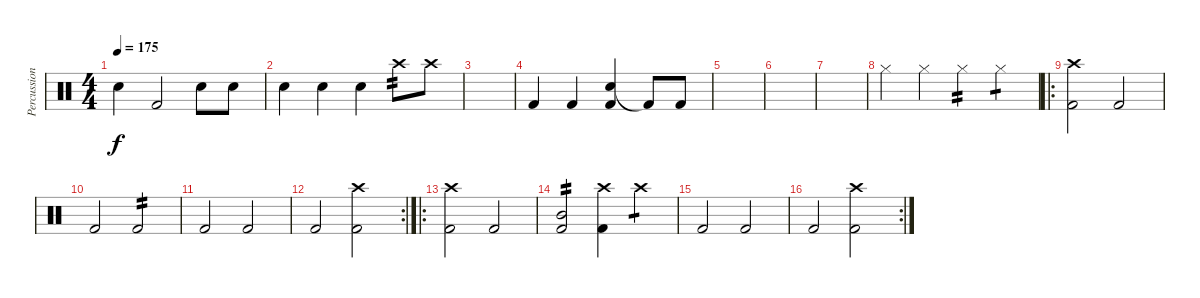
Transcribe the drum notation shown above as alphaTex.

\track ("Percussion" "Percussion") {instrument percussion}
\staff {score}
\articulation defaults
\ts (4 4)
\tempo 175
\clef neutral
\ks c "Snare (hit) 2".4{dy f} "Kick (hit) 2".2 "Snare (hit) 2".8 "Snare (hit) 2".8
|
"Snare (hit) 2".4 "Snare (hit) 2".4 "Snare (hit) 2".4 "Crash high (hit)".8{tp 2} "Crash high (hit)".8 |
|
"Kick (hit) 2".4 "Kick (hit) 2".4 ("Electric Snare (hit)" "Kick (hit) 2").4 "Kick (hit) 2"{t}.8 "Kick (hit) 2".8 |
|
|
|
"Hi-Hat (closed)".4 "Hi-Hat (closed)".4 "Hi-Hat (closed)".4{tp 2} "Hi-Hat (closed)".4{tp 1} |
\ro
("Crash high (hit)" "Kick (hit) 2").2 "Kick (hit) 2".2 |
"Kick (hit) 2".2 "Kick (hit) 2".2{tp 2} |
"Kick (hit) 2".2 "Kick (hit) 2".2 |
\rc 2 "Kick (hit) 2".2
("Crash high (hit)" "Kick (hit) 2").2 |
\ro
("Crash high (hit)" "Kick (hit) 2").2 "Kick (hit) 2".2 |
("Mid Tom (hit)" "Kick (hit) 2").2{tp 2} ("Crash high (hit)" "Kick (hit) 2").4 "Crash high (hit)".4{tp 1} |
"Kick (hit) 2".2 "Kick (hit) 2".2 |
\rc 2 "Kick (hit) 2".2
("Crash high (hit)" "Kick (hit) 2").2
